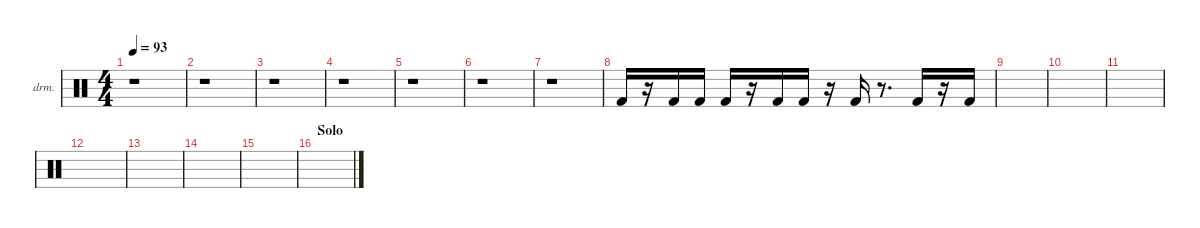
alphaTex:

\defaultSystemsLayout 2
\hideDynamics
\bracketExtendMode nobrackets
\firstSystemTrackNameOrientation horizontal
\otherSystemsTrackNameOrientation horizontal
\track ("Drumkit" "drm.") {instrument percussion}
\staff {score}
\articulation defaults
\ts (4 4)
\tempo 93
\clef neutral
\ks c
r.1{dy mf beam Down} |
r.1{beam Down} |
r.1{beam Down} |
r.1{beam Down} |
r.1{beam Down} |
r.1{beam Down} |
r.1{beam Down} |
"Kick (hit) 2".16{beam Up} r.16{beam Up} "Kick (hit) 2".16{beam Up} "Kick (hit) 2".16{beam Up} "Kick (hit) 2".16{beam Up} r.16{beam Up} "Kick (hit) 2".16{beam Up} "Kick (hit) 2".16{beam Up} r.16{beam Up} "Kick (hit) 2".16{beam Up} r.8{d beam Up} "Kick (hit) 2".16{beam Up} r.16{beam Up} "Kick (hit) 2".16{beam Up} |
|
|
|
|
|
|
|
\section ("" "Solo")
